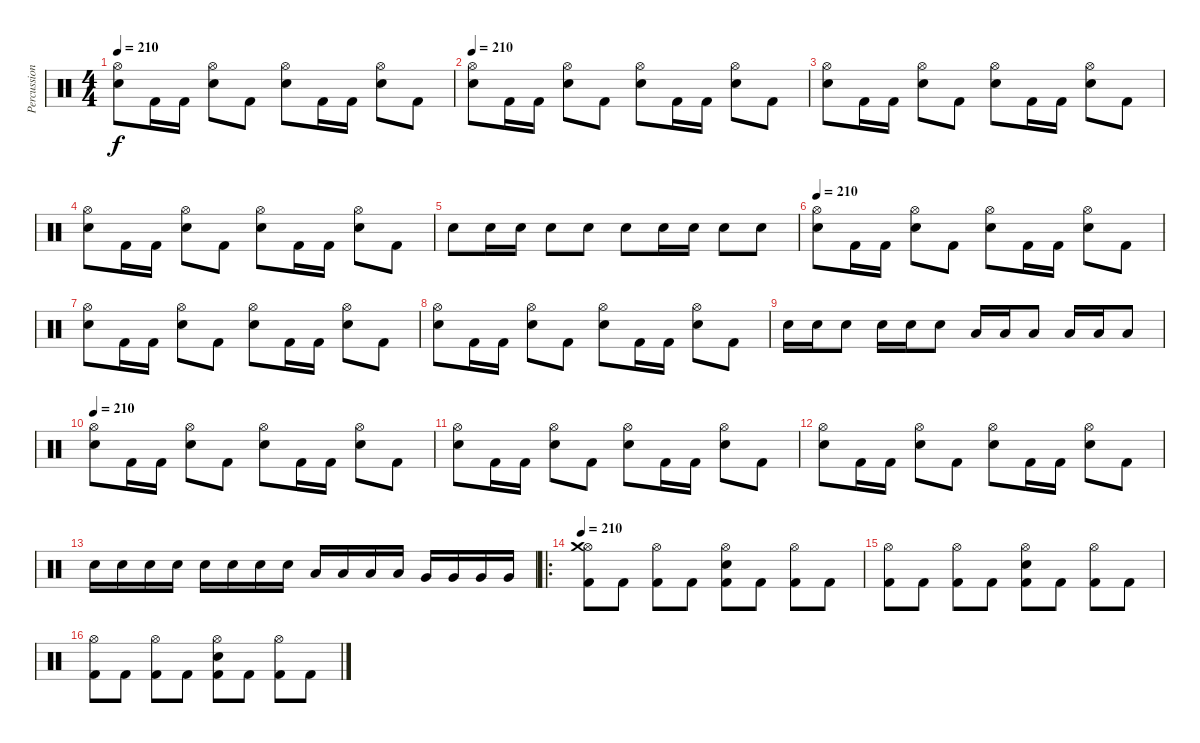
\track ("Percussion" "Percussion") {instrument percussion}
\staff {score}
\articulation defaults
\ts (4 4)
\tempo 210
\clef neutral
\ks c
("Hi-Hat (open)" "Electric Snare (hit)").8{dy f} "Kick (hit) 2".16 "Kick (hit) 2".16 ("Hi-Hat (open)" "Electric Snare (hit)").8 "Kick (hit) 2".8 ("Hi-Hat (open)" "Electric Snare (hit)").8 "Kick (hit) 2".16 "Kick (hit) 2".16 ("Hi-Hat (open)" "Electric Snare (hit)").8 "Kick (hit) 2".8 |
\tempo 210
("Hi-Hat (open)" "Electric Snare (hit)").8 "Kick (hit) 2".16 "Kick (hit) 2".16 ("Hi-Hat (open)" "Electric Snare (hit)").8 "Kick (hit) 2".8 ("Hi-Hat (open)" "Electric Snare (hit)").8 "Kick (hit) 2".16 "Kick (hit) 2".16 ("Hi-Hat (open)" "Electric Snare (hit)").8 "Kick (hit) 2".8 |
("Hi-Hat (open)" "Electric Snare (hit)").8 "Kick (hit) 2".16 "Kick (hit) 2".16 ("Hi-Hat (open)" "Electric Snare (hit)").8 "Kick (hit) 2".8 ("Hi-Hat (open)" "Electric Snare (hit)").8 "Kick (hit) 2".16 "Kick (hit) 2".16 ("Hi-Hat (open)" "Electric Snare (hit)").8 "Kick (hit) 2".8 |
("Hi-Hat (open)" "Electric Snare (hit)").8 "Kick (hit) 2".16 "Kick (hit) 2".16 ("Hi-Hat (open)" "Electric Snare (hit)").8 "Kick (hit) 2".8 ("Hi-Hat (open)" "Electric Snare (hit)").8 "Kick (hit) 2".16 "Kick (hit) 2".16 ("Hi-Hat (open)" "Electric Snare (hit)").8 "Kick (hit) 2".8 |
"Electric Snare (hit)".8 "Electric Snare (hit)".16 "Electric Snare (hit)".16 "Electric Snare (hit)".8 "Electric Snare (hit)".8 "Electric Snare (hit)".8 "Electric Snare (hit)".16 "Electric Snare (hit)".16 "Electric Snare (hit)".8 "Electric Snare (hit)".8 |
\tempo 210
("Hi-Hat (open)" "Electric Snare (hit)").8 "Kick (hit) 2".16 "Kick (hit) 2".16 ("Hi-Hat (open)" "Electric Snare (hit)").8 "Kick (hit) 2".8 ("Hi-Hat (open)" "Electric Snare (hit)").8 "Kick (hit) 2".16 "Kick (hit) 2".16 ("Hi-Hat (open)" "Electric Snare (hit)").8 "Kick (hit) 2".8 |
("Hi-Hat (open)" "Electric Snare (hit)").8 "Kick (hit) 2".16 "Kick (hit) 2".16 ("Hi-Hat (open)" "Electric Snare (hit)").8 "Kick (hit) 2".8 ("Hi-Hat (open)" "Electric Snare (hit)").8 "Kick (hit) 2".16 "Kick (hit) 2".16 ("Hi-Hat (open)" "Electric Snare (hit)").8 "Kick (hit) 2".8 |
("Hi-Hat (open)" "Electric Snare (hit)").8 "Kick (hit) 2".16 "Kick (hit) 2".16 ("Hi-Hat (open)" "Electric Snare (hit)").8 "Kick (hit) 2".8 ("Hi-Hat (open)" "Electric Snare (hit)").8 "Kick (hit) 2".16 "Kick (hit) 2".16 ("Hi-Hat (open)" "Electric Snare (hit)").8 "Kick (hit) 2".8 |
"Electric Snare (hit)".16 "Electric Snare (hit)".16 "Electric Snare (hit)".8 "Electric Snare (hit)".16 "Electric Snare (hit)".16 "Electric Snare (hit)".8 "Low Tom (hit)".16 "Low Tom (hit)".16 "Low Tom (hit)".8 "Low Tom (hit)".16 "Low Tom (hit)".16 "Low Tom (hit)".8 |
\tempo 210
("Hi-Hat (open)" "Electric Snare (hit)").8 "Kick (hit) 2".16 "Kick (hit) 2".16 ("Hi-Hat (open)" "Electric Snare (hit)").8 "Kick (hit) 2".8 ("Hi-Hat (open)" "Electric Snare (hit)").8 "Kick (hit) 2".16 "Kick (hit) 2".16 ("Hi-Hat (open)" "Electric Snare (hit)").8 "Kick (hit) 2".8 |
("Hi-Hat (open)" "Electric Snare (hit)").8 "Kick (hit) 2".16 "Kick (hit) 2".16 ("Hi-Hat (open)" "Electric Snare (hit)").8 "Kick (hit) 2".8 ("Hi-Hat (open)" "Electric Snare (hit)").8 "Kick (hit) 2".16 "Kick (hit) 2".16 ("Hi-Hat (open)" "Electric Snare (hit)").8 "Kick (hit) 2".8 |
("Hi-Hat (open)" "Electric Snare (hit)").8 "Kick (hit) 2".16 "Kick (hit) 2".16 ("Hi-Hat (open)" "Electric Snare (hit)").8 "Kick (hit) 2".8 ("Hi-Hat (open)" "Electric Snare (hit)").8 "Kick (hit) 2".16 "Kick (hit) 2".16 ("Hi-Hat (open)" "Electric Snare (hit)").8 "Kick (hit) 2".8 |
"Electric Snare (hit)".16 "Electric Snare (hit)".16 "Electric Snare (hit)".16 "Electric Snare (hit)".16 "Electric Snare (hit)".16 "Electric Snare (hit)".16 "Electric Snare (hit)".16 "Electric Snare (hit)".16 "Low Tom (hit)".16 "Low Tom (hit)".16 "Low Tom (hit)".16 "Low Tom (hit)".16 "Very Low Tom (hit)".16 "Very Low Tom (hit)".16 "Very Low Tom (hit)".16 "Very Low Tom (hit)".16 |
\ro
\tempo 210
("Hi-Hat (open)" "Crash medium (hit)" "Kick (hit) 2").8 "Kick (hit) 2".8 ("Hi-Hat (open)" "Kick (hit) 2").8 "Kick (hit) 2".8 ("Hi-Hat (open)" "Electric Snare (hit)" "Kick (hit) 2").8 "Kick (hit) 2".8 ("Hi-Hat (open)" "Kick (hit) 2").8 "Kick (hit) 2".8 |
("Hi-Hat (open)" "Kick (hit) 2").8 "Kick (hit) 2".8 ("Hi-Hat (open)" "Kick (hit) 2").8 "Kick (hit) 2".8 ("Hi-Hat (open)" "Electric Snare (hit)" "Kick (hit) 2").8 "Kick (hit) 2".8 ("Hi-Hat (open)" "Kick (hit) 2").8 "Kick (hit) 2".8 |
("Hi-Hat (open)" "Kick (hit) 2").8 "Kick (hit) 2".8 ("Hi-Hat (open)" "Kick (hit) 2").8 "Kick (hit) 2".8 ("Hi-Hat (open)" "Electric Snare (hit)" "Kick (hit) 2").8 "Kick (hit) 2".8 ("Hi-Hat (open)" "Kick (hit) 2").8 "Kick (hit) 2".8
